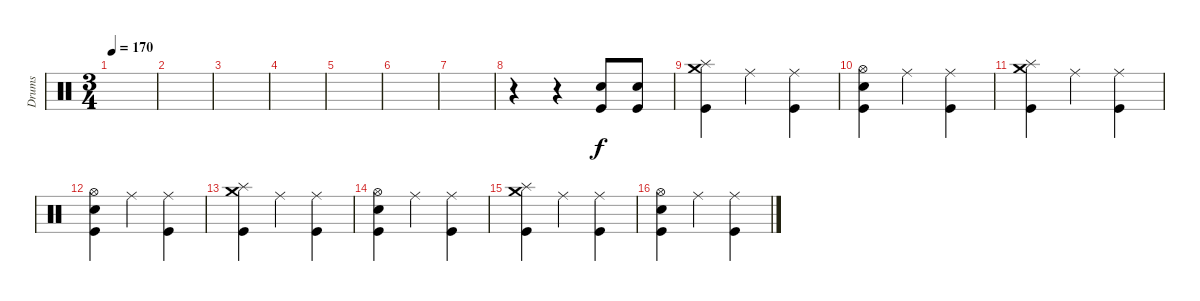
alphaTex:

\track ("Drums" "Drums") {instrument percussion}
\staff {score}
\articulation defaults
\ts (3 4)
\tempo 170
\clef neutral
\ks c
|
|
|
|
|
|
|
r.4 r.4 ("Electric Snare (hit)" "Kick (hit)").8 ("Electric Snare (hit)" "Kick (hit)").8 |
("Splash (hit)" "Crash medium (hit)" "Kick (hit)").4 "Ride (middle)".4 ("Ride (middle)" "Kick (hit)").4 |
("Hi-Hat (open)" "Electric Snare (hit)" "Kick (hit)").4 "Ride (middle)".4 ("Ride (middle)" "Kick (hit)").4 |
("Splash (hit)" "Crash medium (hit)" "Kick (hit)").4 "Ride (middle)".4 ("Ride (middle)" "Kick (hit)").4 |
("Hi-Hat (open)" "Electric Snare (hit)" "Kick (hit)").4 "Ride (middle)".4 ("Ride (middle)" "Kick (hit)").4 |
("Splash (hit)" "Crash medium (hit)" "Kick (hit)").4 "Ride (middle)".4 ("Ride (middle)" "Kick (hit)").4 |
("Hi-Hat (open)" "Electric Snare (hit)" "Kick (hit)").4 "Ride (middle)".4 ("Ride (middle)" "Kick (hit)").4 |
("Splash (hit)" "Crash medium (hit)" "Kick (hit)").4 "Ride (middle)".4 ("Ride (middle)" "Kick (hit)").4 |
("Hi-Hat (open)" "Electric Snare (hit)" "Kick (hit)").4 "Ride (middle)".4 ("Ride (middle)" "Kick (hit)").4
